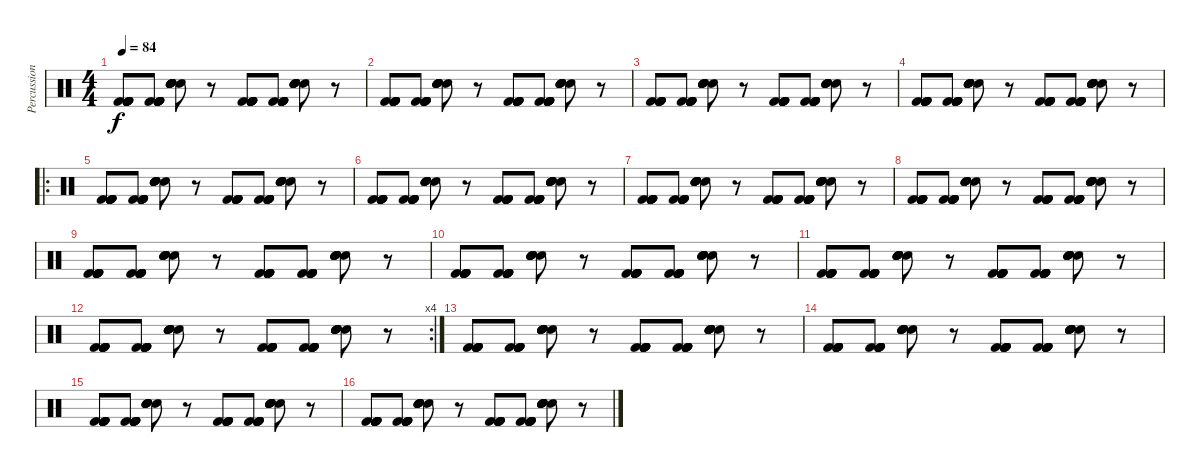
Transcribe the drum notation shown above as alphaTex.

\track ("Percussion" "Percussion") {instrument percussion}
\staff {score}
\articulation defaults
\ts (4 4)
\tempo 84
\clef neutral
\ks c
("Kick (hit) 2" "Kick (hit) 2" "Kick (hit) 2" "Kick (hit) 2" "Kick (hit) 2" "Kick (hit) 2").8{dy f} ("Kick (hit) 2" "Kick (hit) 2" "Kick (hit) 2" "Kick (hit) 2" "Kick (hit) 2" "Kick (hit) 2").8 ("Hand Clap (hit)" "Hand Clap (hit)" "Hand Clap (hit)" "Hand Clap (hit)" "Hand Clap (hit)" "Hand Clap (hit)").8 r.8 ("Kick (hit) 2" "Kick (hit) 2" "Kick (hit) 2" "Kick (hit) 2" "Kick (hit) 2" "Kick (hit) 2").8 ("Kick (hit) 2" "Kick (hit) 2" "Kick (hit) 2" "Kick (hit) 2" "Kick (hit) 2" "Kick (hit) 2").8 ("Hand Clap (hit)" "Hand Clap (hit)" "Hand Clap (hit)" "Hand Clap (hit)" "Hand Clap (hit)" "Hand Clap (hit)").8 r.8 |
("Kick (hit) 2" "Kick (hit) 2" "Kick (hit) 2" "Kick (hit) 2" "Kick (hit) 2" "Kick (hit) 2").8 ("Kick (hit) 2" "Kick (hit) 2" "Kick (hit) 2" "Kick (hit) 2" "Kick (hit) 2" "Kick (hit) 2").8 ("Hand Clap (hit)" "Hand Clap (hit)" "Hand Clap (hit)" "Hand Clap (hit)" "Hand Clap (hit)" "Hand Clap (hit)").8 r.8 ("Kick (hit) 2" "Kick (hit) 2" "Kick (hit) 2" "Kick (hit) 2" "Kick (hit) 2" "Kick (hit) 2").8 ("Kick (hit) 2" "Kick (hit) 2" "Kick (hit) 2" "Kick (hit) 2" "Kick (hit) 2" "Kick (hit) 2").8 ("Hand Clap (hit)" "Hand Clap (hit)" "Hand Clap (hit)" "Hand Clap (hit)" "Hand Clap (hit)" "Hand Clap (hit)").8 r.8 |
("Kick (hit) 2" "Kick (hit) 2" "Kick (hit) 2" "Kick (hit) 2" "Kick (hit) 2" "Kick (hit) 2").8 ("Kick (hit) 2" "Kick (hit) 2" "Kick (hit) 2" "Kick (hit) 2" "Kick (hit) 2" "Kick (hit) 2").8 ("Hand Clap (hit)" "Hand Clap (hit)" "Hand Clap (hit)" "Hand Clap (hit)" "Hand Clap (hit)" "Hand Clap (hit)").8 r.8 ("Kick (hit) 2" "Kick (hit) 2" "Kick (hit) 2" "Kick (hit) 2" "Kick (hit) 2" "Kick (hit) 2").8 ("Kick (hit) 2" "Kick (hit) 2" "Kick (hit) 2" "Kick (hit) 2" "Kick (hit) 2" "Kick (hit) 2").8 ("Hand Clap (hit)" "Hand Clap (hit)" "Hand Clap (hit)" "Hand Clap (hit)" "Hand Clap (hit)" "Hand Clap (hit)").8 r.8 |
("Kick (hit) 2" "Kick (hit) 2" "Kick (hit) 2" "Kick (hit) 2" "Kick (hit) 2" "Kick (hit) 2").8 ("Kick (hit) 2" "Kick (hit) 2" "Kick (hit) 2" "Kick (hit) 2" "Kick (hit) 2" "Kick (hit) 2").8 ("Hand Clap (hit)" "Hand Clap (hit)" "Hand Clap (hit)" "Hand Clap (hit)" "Hand Clap (hit)" "Hand Clap (hit)").8 r.8 ("Kick (hit) 2" "Kick (hit) 2" "Kick (hit) 2" "Kick (hit) 2" "Kick (hit) 2" "Kick (hit) 2").8 ("Kick (hit) 2" "Kick (hit) 2" "Kick (hit) 2" "Kick (hit) 2" "Kick (hit) 2" "Kick (hit) 2").8 ("Hand Clap (hit)" "Hand Clap (hit)" "Hand Clap (hit)" "Hand Clap (hit)" "Hand Clap (hit)" "Hand Clap (hit)").8 r.8 |
\ro
("Kick (hit) 2" "Kick (hit) 2" "Kick (hit) 2" "Kick (hit) 2" "Kick (hit) 2" "Kick (hit) 2").8 ("Kick (hit) 2" "Kick (hit) 2" "Kick (hit) 2" "Kick (hit) 2" "Kick (hit) 2" "Kick (hit) 2").8 ("Hand Clap (hit)" "Hand Clap (hit)" "Hand Clap (hit)" "Hand Clap (hit)" "Hand Clap (hit)" "Hand Clap (hit)").8 r.8 ("Kick (hit) 2" "Kick (hit) 2" "Kick (hit) 2" "Kick (hit) 2" "Kick (hit) 2" "Kick (hit) 2").8 ("Kick (hit) 2" "Kick (hit) 2" "Kick (hit) 2" "Kick (hit) 2" "Kick (hit) 2" "Kick (hit) 2").8 ("Hand Clap (hit)" "Hand Clap (hit)" "Hand Clap (hit)" "Hand Clap (hit)" "Hand Clap (hit)" "Hand Clap (hit)").8 r.8 |
("Kick (hit) 2" "Kick (hit) 2" "Kick (hit) 2" "Kick (hit) 2" "Kick (hit) 2" "Kick (hit) 2").8 ("Kick (hit) 2" "Kick (hit) 2" "Kick (hit) 2" "Kick (hit) 2" "Kick (hit) 2" "Kick (hit) 2").8 ("Hand Clap (hit)" "Hand Clap (hit)" "Hand Clap (hit)" "Hand Clap (hit)" "Hand Clap (hit)" "Hand Clap (hit)").8 r.8 ("Kick (hit) 2" "Kick (hit) 2" "Kick (hit) 2" "Kick (hit) 2" "Kick (hit) 2" "Kick (hit) 2").8 ("Kick (hit) 2" "Kick (hit) 2" "Kick (hit) 2" "Kick (hit) 2" "Kick (hit) 2" "Kick (hit) 2").8 ("Hand Clap (hit)" "Hand Clap (hit)" "Hand Clap (hit)" "Hand Clap (hit)" "Hand Clap (hit)" "Hand Clap (hit)").8 r.8 |
("Kick (hit) 2" "Kick (hit) 2" "Kick (hit) 2" "Kick (hit) 2" "Kick (hit) 2" "Kick (hit) 2").8 ("Kick (hit) 2" "Kick (hit) 2" "Kick (hit) 2" "Kick (hit) 2" "Kick (hit) 2" "Kick (hit) 2").8 ("Hand Clap (hit)" "Hand Clap (hit)" "Hand Clap (hit)" "Hand Clap (hit)" "Hand Clap (hit)" "Hand Clap (hit)").8 r.8 ("Kick (hit) 2" "Kick (hit) 2" "Kick (hit) 2" "Kick (hit) 2" "Kick (hit) 2" "Kick (hit) 2").8 ("Kick (hit) 2" "Kick (hit) 2" "Kick (hit) 2" "Kick (hit) 2" "Kick (hit) 2" "Kick (hit) 2").8 ("Hand Clap (hit)" "Hand Clap (hit)" "Hand Clap (hit)" "Hand Clap (hit)" "Hand Clap (hit)" "Hand Clap (hit)").8 r.8 |
("Kick (hit) 2" "Kick (hit) 2" "Kick (hit) 2" "Kick (hit) 2" "Kick (hit) 2" "Kick (hit) 2").8 ("Kick (hit) 2" "Kick (hit) 2" "Kick (hit) 2" "Kick (hit) 2" "Kick (hit) 2" "Kick (hit) 2").8 ("Hand Clap (hit)" "Hand Clap (hit)" "Hand Clap (hit)" "Hand Clap (hit)" "Hand Clap (hit)" "Hand Clap (hit)").8 r.8 ("Kick (hit) 2" "Kick (hit) 2" "Kick (hit) 2" "Kick (hit) 2" "Kick (hit) 2" "Kick (hit) 2").8 ("Kick (hit) 2" "Kick (hit) 2" "Kick (hit) 2" "Kick (hit) 2" "Kick (hit) 2" "Kick (hit) 2").8 ("Hand Clap (hit)" "Hand Clap (hit)" "Hand Clap (hit)" "Hand Clap (hit)" "Hand Clap (hit)" "Hand Clap (hit)").8 r.8 |
("Kick (hit) 2" "Kick (hit) 2" "Kick (hit) 2" "Kick (hit) 2" "Kick (hit) 2" "Kick (hit) 2").8 ("Kick (hit) 2" "Kick (hit) 2" "Kick (hit) 2" "Kick (hit) 2" "Kick (hit) 2" "Kick (hit) 2").8 ("Hand Clap (hit)" "Hand Clap (hit)" "Hand Clap (hit)" "Hand Clap (hit)" "Hand Clap (hit)" "Hand Clap (hit)").8 r.8 ("Kick (hit) 2" "Kick (hit) 2" "Kick (hit) 2" "Kick (hit) 2" "Kick (hit) 2" "Kick (hit) 2").8 ("Kick (hit) 2" "Kick (hit) 2" "Kick (hit) 2" "Kick (hit) 2" "Kick (hit) 2" "Kick (hit) 2").8 ("Hand Clap (hit)" "Hand Clap (hit)" "Hand Clap (hit)" "Hand Clap (hit)" "Hand Clap (hit)" "Hand Clap (hit)").8 r.8 |
("Kick (hit) 2" "Kick (hit) 2" "Kick (hit) 2" "Kick (hit) 2" "Kick (hit) 2" "Kick (hit) 2").8 ("Kick (hit) 2" "Kick (hit) 2" "Kick (hit) 2" "Kick (hit) 2" "Kick (hit) 2" "Kick (hit) 2").8 ("Hand Clap (hit)" "Hand Clap (hit)" "Hand Clap (hit)" "Hand Clap (hit)" "Hand Clap (hit)" "Hand Clap (hit)").8 r.8 ("Kick (hit) 2" "Kick (hit) 2" "Kick (hit) 2" "Kick (hit) 2" "Kick (hit) 2" "Kick (hit) 2").8 ("Kick (hit) 2" "Kick (hit) 2" "Kick (hit) 2" "Kick (hit) 2" "Kick (hit) 2" "Kick (hit) 2").8 ("Hand Clap (hit)" "Hand Clap (hit)" "Hand Clap (hit)" "Hand Clap (hit)" "Hand Clap (hit)" "Hand Clap (hit)").8 r.8 |
("Kick (hit) 2" "Kick (hit) 2" "Kick (hit) 2" "Kick (hit) 2" "Kick (hit) 2" "Kick (hit) 2").8 ("Kick (hit) 2" "Kick (hit) 2" "Kick (hit) 2" "Kick (hit) 2" "Kick (hit) 2" "Kick (hit) 2").8 ("Hand Clap (hit)" "Hand Clap (hit)" "Hand Clap (hit)" "Hand Clap (hit)" "Hand Clap (hit)" "Hand Clap (hit)").8 r.8 ("Kick (hit) 2" "Kick (hit) 2" "Kick (hit) 2" "Kick (hit) 2" "Kick (hit) 2" "Kick (hit) 2").8 ("Kick (hit) 2" "Kick (hit) 2" "Kick (hit) 2" "Kick (hit) 2" "Kick (hit) 2" "Kick (hit) 2").8 ("Hand Clap (hit)" "Hand Clap (hit)" "Hand Clap (hit)" "Hand Clap (hit)" "Hand Clap (hit)" "Hand Clap (hit)").8 r.8 |
\rc 4
("Kick (hit) 2" "Kick (hit) 2" "Kick (hit) 2" "Kick (hit) 2" "Kick (hit) 2" "Kick (hit) 2").8 ("Kick (hit) 2" "Kick (hit) 2" "Kick (hit) 2" "Kick (hit) 2" "Kick (hit) 2" "Kick (hit) 2").8 ("Hand Clap (hit)" "Hand Clap (hit)" "Hand Clap (hit)" "Hand Clap (hit)" "Hand Clap (hit)" "Hand Clap (hit)").8 r.8 ("Kick (hit) 2" "Kick (hit) 2" "Kick (hit) 2" "Kick (hit) 2" "Kick (hit) 2" "Kick (hit) 2").8 ("Kick (hit) 2" "Kick (hit) 2" "Kick (hit) 2" "Kick (hit) 2" "Kick (hit) 2" "Kick (hit) 2").8 ("Hand Clap (hit)" "Hand Clap (hit)" "Hand Clap (hit)" "Hand Clap (hit)" "Hand Clap (hit)" "Hand Clap (hit)").8 r.8 |
("Kick (hit) 2" "Kick (hit) 2" "Kick (hit) 2" "Kick (hit) 2" "Kick (hit) 2" "Kick (hit) 2").8 ("Kick (hit) 2" "Kick (hit) 2" "Kick (hit) 2" "Kick (hit) 2" "Kick (hit) 2" "Kick (hit) 2").8 ("Hand Clap (hit)" "Hand Clap (hit)" "Hand Clap (hit)" "Hand Clap (hit)" "Hand Clap (hit)" "Hand Clap (hit)").8 r.8 ("Kick (hit) 2" "Kick (hit) 2" "Kick (hit) 2" "Kick (hit) 2" "Kick (hit) 2" "Kick (hit) 2").8 ("Kick (hit) 2" "Kick (hit) 2" "Kick (hit) 2" "Kick (hit) 2" "Kick (hit) 2" "Kick (hit) 2").8 ("Hand Clap (hit)" "Hand Clap (hit)" "Hand Clap (hit)" "Hand Clap (hit)" "Hand Clap (hit)" "Hand Clap (hit)").8 r.8 |
("Kick (hit) 2" "Kick (hit) 2" "Kick (hit) 2" "Kick (hit) 2" "Kick (hit) 2" "Kick (hit) 2").8 ("Kick (hit) 2" "Kick (hit) 2" "Kick (hit) 2" "Kick (hit) 2" "Kick (hit) 2" "Kick (hit) 2").8 ("Hand Clap (hit)" "Hand Clap (hit)" "Hand Clap (hit)" "Hand Clap (hit)" "Hand Clap (hit)" "Hand Clap (hit)").8 r.8 ("Kick (hit) 2" "Kick (hit) 2" "Kick (hit) 2" "Kick (hit) 2" "Kick (hit) 2" "Kick (hit) 2").8 ("Kick (hit) 2" "Kick (hit) 2" "Kick (hit) 2" "Kick (hit) 2" "Kick (hit) 2" "Kick (hit) 2").8 ("Hand Clap (hit)" "Hand Clap (hit)" "Hand Clap (hit)" "Hand Clap (hit)" "Hand Clap (hit)" "Hand Clap (hit)").8 r.8 |
("Kick (hit) 2" "Kick (hit) 2" "Kick (hit) 2" "Kick (hit) 2" "Kick (hit) 2" "Kick (hit) 2").8 ("Kick (hit) 2" "Kick (hit) 2" "Kick (hit) 2" "Kick (hit) 2" "Kick (hit) 2" "Kick (hit) 2").8 ("Hand Clap (hit)" "Hand Clap (hit)" "Hand Clap (hit)" "Hand Clap (hit)" "Hand Clap (hit)" "Hand Clap (hit)").8 r.8 ("Kick (hit) 2" "Kick (hit) 2" "Kick (hit) 2" "Kick (hit) 2" "Kick (hit) 2" "Kick (hit) 2").8 ("Kick (hit) 2" "Kick (hit) 2" "Kick (hit) 2" "Kick (hit) 2" "Kick (hit) 2" "Kick (hit) 2").8 ("Hand Clap (hit)" "Hand Clap (hit)" "Hand Clap (hit)" "Hand Clap (hit)" "Hand Clap (hit)" "Hand Clap (hit)").8 r.8 |
("Kick (hit) 2" "Kick (hit) 2" "Kick (hit) 2" "Kick (hit) 2" "Kick (hit) 2" "Kick (hit) 2").8 ("Kick (hit) 2" "Kick (hit) 2" "Kick (hit) 2" "Kick (hit) 2" "Kick (hit) 2" "Kick (hit) 2").8 ("Hand Clap (hit)" "Hand Clap (hit)" "Hand Clap (hit)" "Hand Clap (hit)" "Hand Clap (hit)" "Hand Clap (hit)").8 r.8 ("Kick (hit) 2" "Kick (hit) 2" "Kick (hit) 2" "Kick (hit) 2" "Kick (hit) 2" "Kick (hit) 2").8 ("Kick (hit) 2" "Kick (hit) 2" "Kick (hit) 2" "Kick (hit) 2" "Kick (hit) 2" "Kick (hit) 2").8 ("Hand Clap (hit)" "Hand Clap (hit)" "Hand Clap (hit)" "Hand Clap (hit)" "Hand Clap (hit)" "Hand Clap (hit)").8 r.8
